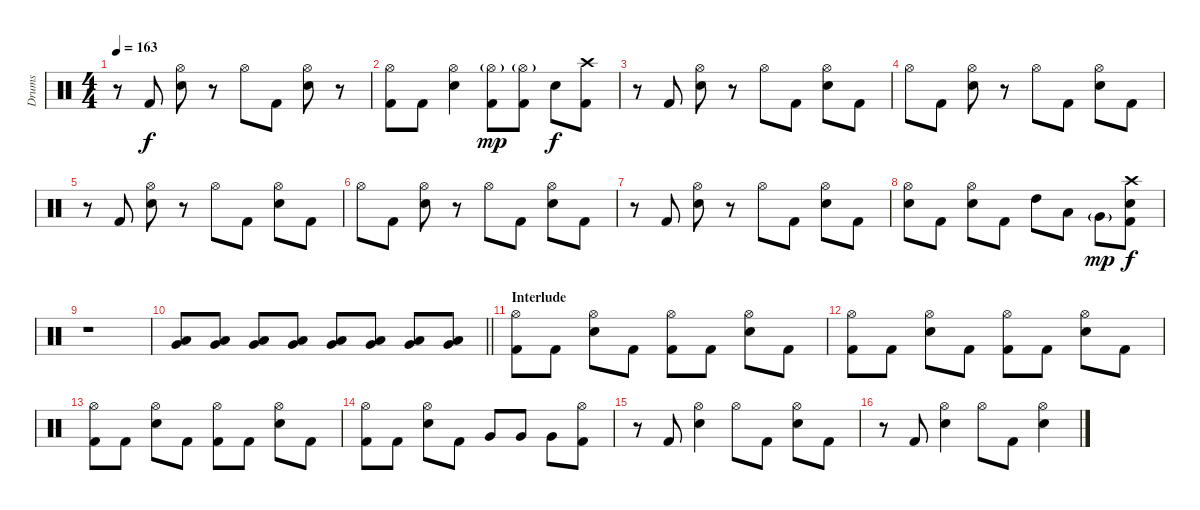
\track ("Drums" "Drums") {instrument percussion}
\staff {score}
\articulation defaults
\ts (4 4)
\tempo 163
\clef neutral
\ks c
r.8{dy f} "Kick (hit) 2".8 ("Hi-Hat (open)" "Snare (hit) 2").8 r.8 "Hi-Hat (open)".8 "Kick (hit) 2".8 ("Hi-Hat (open)" "Snare (hit) 2").8 r.8 |
("Hi-Hat (open)" "Kick (hit) 2").8 "Kick (hit) 2".8 ("Hi-Hat (open)" "Snare (hit) 2").4 ("Hi-Hat (open)"{g} "Kick (hit) 2").8{dy mp} ("Hi-Hat (open)"{g} "Kick (hit) 2").8 "Snare (hit) 2".8{dy f} ("Crash high (hit)" "Kick (hit) 2").8 |
r.8 "Kick (hit) 2".8 ("Hi-Hat (open)" "Snare (hit) 2").8 r.8 "Hi-Hat (open)".8 "Kick (hit) 2".8 ("Hi-Hat (open)" "Snare (hit) 2").8 "Kick (hit) 2".8 |
"Hi-Hat (open)".8 "Kick (hit) 2".8 ("Hi-Hat (open)" "Snare (hit) 2").8 r.8 "Hi-Hat (open)".8 "Kick (hit) 2".8 ("Hi-Hat (open)" "Snare (hit) 2").8 "Kick (hit) 2".8 |
r.8 "Kick (hit) 2".8 ("Hi-Hat (open)" "Snare (hit) 2").8 r.8 "Hi-Hat (open)".8 "Kick (hit) 2".8 ("Hi-Hat (open)" "Snare (hit) 2").8 "Kick (hit) 2".8 |
"Hi-Hat (open)".8 "Kick (hit) 2".8 ("Hi-Hat (open)" "Snare (hit) 2").8 r.8 "Hi-Hat (open)".8 "Kick (hit) 2".8 ("Hi-Hat (open)" "Snare (hit) 2").8 "Kick (hit) 2".8 |
r.8 "Kick (hit) 2".8 ("Hi-Hat (open)" "Snare (hit) 2").8 r.8 "Hi-Hat (open)".8 "Kick (hit) 2".8 ("Hi-Hat (open)" "Snare (hit) 2").8 "Kick (hit) 2".8 |
("Hi-Hat (open)" "Snare (hit) 2").8 "Kick (hit) 2".8 ("Hi-Hat (open)" "Snare (hit) 2").8 "Kick (hit) 2".8 "High Tom (hit)".8 "Low Tom (hit)".8 "Very Low Tom (hit)"{g}.8{dy mp} ("Crash high (hit)" "Snare (hit) 2" "Kick (hit) 2").8{dy f} |
r.1 |
\barLineRight lightlight
("Low Tom (hit)" "Very Low Tom (hit)").8 ("Low Tom (hit)" "Very Low Tom (hit)").8 ("Low Tom (hit)" "Very Low Tom (hit)").8 ("Low Tom (hit)" "Very Low Tom (hit)").8 ("Low Tom (hit)" "Very Low Tom (hit)").8 ("Low Tom (hit)" "Very Low Tom (hit)").8 ("Low Tom (hit)" "Very Low Tom (hit)").8 ("Low Tom (hit)" "Very Low Tom (hit)").8 |
\section ("" "Interlude")
("Hi-Hat (open)" "Kick (hit) 2").8 "Kick (hit) 2".8 ("Hi-Hat (open)" "Snare (hit) 2").8 "Kick (hit) 2".8 ("Hi-Hat (open)" "Kick (hit) 2").8 "Kick (hit) 2".8 ("Hi-Hat (open)" "Snare (hit) 2").8 "Kick (hit) 2".8 |
("Hi-Hat (open)" "Kick (hit) 2").8 "Kick (hit) 2".8 ("Hi-Hat (open)" "Snare (hit) 2").8 "Kick (hit) 2".8 ("Hi-Hat (open)" "Kick (hit) 2").8 "Kick (hit) 2".8 ("Hi-Hat (open)" "Snare (hit) 2").8 "Kick (hit) 2".8 |
("Hi-Hat (open)" "Kick (hit) 2").8 "Kick (hit) 2".8 ("Hi-Hat (open)" "Snare (hit) 2").8 "Kick (hit) 2".8 ("Hi-Hat (open)" "Kick (hit) 2").8 "Kick (hit) 2".8 ("Hi-Hat (open)" "Snare (hit) 2").8 "Kick (hit) 2".8 |
("Hi-Hat (open)" "Kick (hit) 2").8 "Kick (hit) 2".8 ("Hi-Hat (open)" "Snare (hit) 2").8 "Kick (hit) 2".8 "Very Low Tom (hit)".8 "Very Low Tom (hit)".8 "Very Low Tom (hit)".8 ("Hi-Hat (open)" "Kick (hit) 2").8 |
r.8 "Kick (hit) 2".8 ("Hi-Hat (open)" "Snare (hit) 2").4 "Hi-Hat (open)".8 "Kick (hit) 2".8 ("Hi-Hat (open)" "Snare (hit) 2").8 "Kick (hit) 2".8 |
r.8 "Kick (hit) 2".8 ("Hi-Hat (open)" "Snare (hit) 2").4 "Hi-Hat (open)".8 "Kick (hit) 2".8 ("Hi-Hat (open)" "Snare (hit) 2").4
